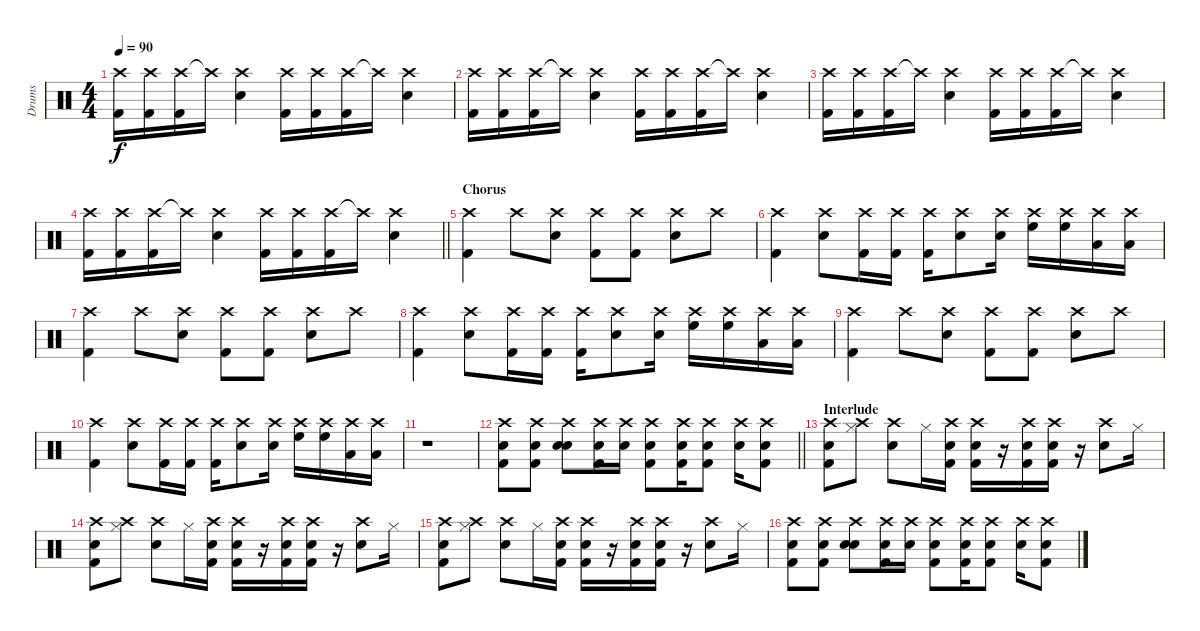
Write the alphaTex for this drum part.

\track ("Drums" "Drums") {instrument percussion}
\staff {score}
\articulation defaults
\ts (4 4)
\tempo 90
\clef neutral
\ks c
("Crash high (hit)" "Kick (hit) 2").16{dy f} ("Crash high (hit)" "Kick (hit) 2").16 ("Crash high (hit)" "Kick (hit) 2").16 "Crash high (hit)"{t}.16 ("Crash high (hit)" "Electric Snare (hit)").4 ("Crash high (hit)" "Kick (hit) 2").16 ("Crash high (hit)" "Kick (hit) 2").16 ("Crash high (hit)" "Kick (hit) 2").16 "Crash high (hit)"{t}.16 ("Crash high (hit)" "Electric Snare (hit)").4 |
("Crash high (hit)" "Kick (hit) 2").16 ("Crash high (hit)" "Kick (hit) 2").16 ("Crash high (hit)" "Kick (hit) 2").16 "Crash high (hit)"{t}.16 ("Crash high (hit)" "Electric Snare (hit)").4 ("Crash high (hit)" "Kick (hit) 2").16 ("Crash high (hit)" "Kick (hit) 2").16 ("Crash high (hit)" "Kick (hit) 2").16 "Crash high (hit)"{t}.16 ("Crash high (hit)" "Electric Snare (hit)").4 |
("Crash high (hit)" "Kick (hit) 2").16 ("Crash high (hit)" "Kick (hit) 2").16 ("Crash high (hit)" "Kick (hit) 2").16 "Crash high (hit)"{t}.16 ("Crash high (hit)" "Electric Snare (hit)").4 ("Crash high (hit)" "Kick (hit) 2").16 ("Crash high (hit)" "Kick (hit) 2").16 ("Crash high (hit)" "Kick (hit) 2").16 "Crash high (hit)"{t}.16 ("Crash high (hit)" "Electric Snare (hit)").4 |
\barLineRight lightlight
("Crash high (hit)" "Kick (hit) 2").16 ("Crash high (hit)" "Kick (hit) 2").16 ("Crash high (hit)" "Kick (hit) 2").16 "Crash high (hit)"{t}.16 ("Crash high (hit)" "Electric Snare (hit)").4 ("Crash high (hit)" "Kick (hit) 2").16 ("Crash high (hit)" "Kick (hit) 2").16 ("Crash high (hit)" "Kick (hit) 2").16 "Crash high (hit)"{t}.16 ("Crash high (hit)" "Electric Snare (hit)").4 |
\section ("" "Chorus")
("Crash high (hit)" "Kick (hit) 2").4 "Crash high (hit)".8 ("Crash high (hit)" "Snare (hit) 2").8 ("Crash high (hit)" "Kick (hit) 2").8 ("Crash high (hit)" "Kick (hit) 2").8 ("Crash high (hit)" "Snare (hit) 2").8 "Crash high (hit)".8 |
("Crash high (hit)" "Kick (hit) 2").4 ("Crash high (hit)" "Snare (hit) 2").8 ("Crash high (hit)" "Kick (hit) 2").16 ("Crash high (hit)" "Kick (hit) 2").16 ("Crash high (hit)" "Kick (hit) 2").16 ("Crash high (hit)" "Snare (hit) 2").8 ("Crash high (hit)" "Snare (hit) 2").16 ("Crash high (hit)" "High Floor Tom (hit)").16 ("Crash high (hit)" "High Floor Tom (hit)").16 ("Crash high (hit)" "Low Tom (hit)").16 ("Crash high (hit)" "Low Tom (hit)").16 |
("Crash high (hit)" "Kick (hit) 2").4 "Crash high (hit)".8 ("Crash high (hit)" "Snare (hit) 2").8 ("Crash high (hit)" "Kick (hit) 2").8 ("Crash high (hit)" "Kick (hit) 2").8 ("Crash high (hit)" "Snare (hit) 2").8 "Crash high (hit)".8 |
("Crash high (hit)" "Kick (hit) 2").4 ("Crash high (hit)" "Snare (hit) 2").8 ("Crash high (hit)" "Kick (hit) 2").16 ("Crash high (hit)" "Kick (hit) 2").16 ("Crash high (hit)" "Kick (hit) 2").16 ("Crash high (hit)" "Snare (hit) 2").8 ("Crash high (hit)" "Snare (hit) 2").16 ("Crash high (hit)" "High Floor Tom (hit)").16 ("Crash high (hit)" "High Floor Tom (hit)").16 ("Crash high (hit)" "Low Tom (hit)").16 ("Crash high (hit)" "Low Tom (hit)").16 |
("Crash high (hit)" "Kick (hit) 2").4 "Crash high (hit)".8 ("Crash high (hit)" "Snare (hit) 2").8 ("Crash high (hit)" "Kick (hit) 2").8 ("Crash high (hit)" "Kick (hit) 2").8 ("Crash high (hit)" "Snare (hit) 2").8 "Crash high (hit)".8 |
("Crash high (hit)" "Kick (hit) 2").4 ("Crash high (hit)" "Snare (hit) 2").8 ("Crash high (hit)" "Kick (hit) 2").16 ("Crash high (hit)" "Kick (hit) 2").16 ("Crash high (hit)" "Kick (hit) 2").16 ("Crash high (hit)" "Snare (hit) 2").8 ("Crash high (hit)" "Snare (hit) 2").16 ("Crash high (hit)" "High Floor Tom (hit)").16 ("Crash high (hit)" "High Floor Tom (hit)").16 ("Crash high (hit)" "Low Tom (hit)").16 ("Crash high (hit)" "Low Tom (hit)").16 |
r.1 |
\barLineRight lightlight
("Crash high (hit)" "Kick (hit) 2" "Snare (hit) 2").8 ("Crash high (hit)" "Kick (hit) 2" "Snare (hit) 2").8 ("Crash high (hit)" "Electric Snare (hit)" "Electric Snare (hit)").8 ("Crash high (hit)" "Kick (hit) 2" "Snare (hit) 2").16 ("Crash high (hit)" "Electric Snare (hit)").16 ("Crash high (hit)" "Kick (hit) 2" "Snare (hit) 2").8 ("Crash high (hit)" "Kick (hit) 2" "Snare (hit) 2").16 ("Crash high (hit)" "Kick (hit) 2" "Snare (hit) 2").8 ("Crash high (hit)" "Electric Snare (hit)").16 ("Crash high (hit)" "Kick (hit) 2" "Snare (hit) 2").8 |
\section ("" "Interlude")
("Crash high (hit)" "Kick (hit) 2" "Snare (hit) 2").8 ("Crash high (hit)" "Hi-Hat (closed)").8 ("Crash high (hit)" "Electric Snare (hit)").8 "Hi-Hat (closed)".16 ("Crash high (hit)" "Kick (hit) 2" "Snare (hit) 2").16 ("Crash high (hit)" "Kick (hit) 2" "Snare (hit) 2").16 r.16 ("Crash high (hit)" "Kick (hit) 2" "Snare (hit) 2").16 ("Crash high (hit)" "Kick (hit) 2" "Snare (hit) 2").16 r.16 ("Crash high (hit)" "Electric Snare (hit)").8 "Hi-Hat (closed)".16 |
("Crash high (hit)" "Kick (hit) 2" "Snare (hit) 2").8 ("Crash high (hit)" "Hi-Hat (closed)").8 ("Crash high (hit)" "Electric Snare (hit)").8 "Hi-Hat (closed)".16 ("Crash high (hit)" "Kick (hit) 2" "Snare (hit) 2").16 ("Crash high (hit)" "Kick (hit) 2" "Snare (hit) 2").16 r.16 ("Crash high (hit)" "Kick (hit) 2" "Snare (hit) 2").16 ("Crash high (hit)" "Kick (hit) 2" "Snare (hit) 2").16 r.16 ("Crash high (hit)" "Electric Snare (hit)").8 "Hi-Hat (closed)".16 |
("Crash high (hit)" "Kick (hit) 2" "Snare (hit) 2").8 ("Crash high (hit)" "Hi-Hat (closed)").8 ("Crash high (hit)" "Electric Snare (hit)").8 "Hi-Hat (closed)".16 ("Crash high (hit)" "Kick (hit) 2" "Snare (hit) 2").16 ("Crash high (hit)" "Kick (hit) 2" "Snare (hit) 2").16 r.16 ("Crash high (hit)" "Kick (hit) 2" "Snare (hit) 2").16 ("Crash high (hit)" "Kick (hit) 2" "Snare (hit) 2").16 r.16 ("Crash high (hit)" "Electric Snare (hit)").8 "Hi-Hat (closed)".16 |
("Crash high (hit)" "Kick (hit) 2" "Snare (hit) 2").8 ("Crash high (hit)" "Kick (hit) 2" "Snare (hit) 2").8 ("Crash high (hit)" "Electric Snare (hit)" "Electric Snare (hit)").8 ("Crash high (hit)" "Kick (hit) 2" "Snare (hit) 2").16 ("Crash high (hit)" "Electric Snare (hit)").16 ("Crash high (hit)" "Kick (hit) 2" "Snare (hit) 2").8 ("Crash high (hit)" "Kick (hit) 2" "Snare (hit) 2").16 ("Crash high (hit)" "Kick (hit) 2" "Snare (hit) 2").8 ("Crash high (hit)" "Electric Snare (hit)").16 ("Crash high (hit)" "Kick (hit) 2" "Snare (hit) 2").8
